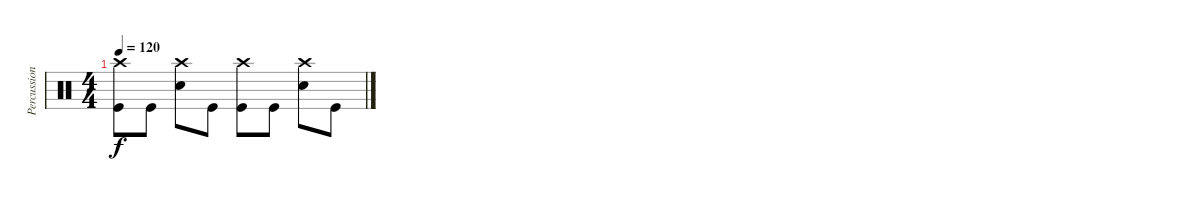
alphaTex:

\track ("Percussion" "Percussion") {instrument percussion}
\staff {score}
\articulation defaults
\ts (4 4)
\tempo 120
\clef neutral
\ks c
("Crash high (hit)" "Kick (hit)").8{dy f} "Kick (hit)".8 ("Crash high (hit)" "Snare (hit) 2").8 "Kick (hit)".8 ("Crash high (hit)" "Kick (hit)").8 "Kick (hit)".8 ("Crash high (hit)" "Snare (hit) 2").8 "Kick (hit)".8
